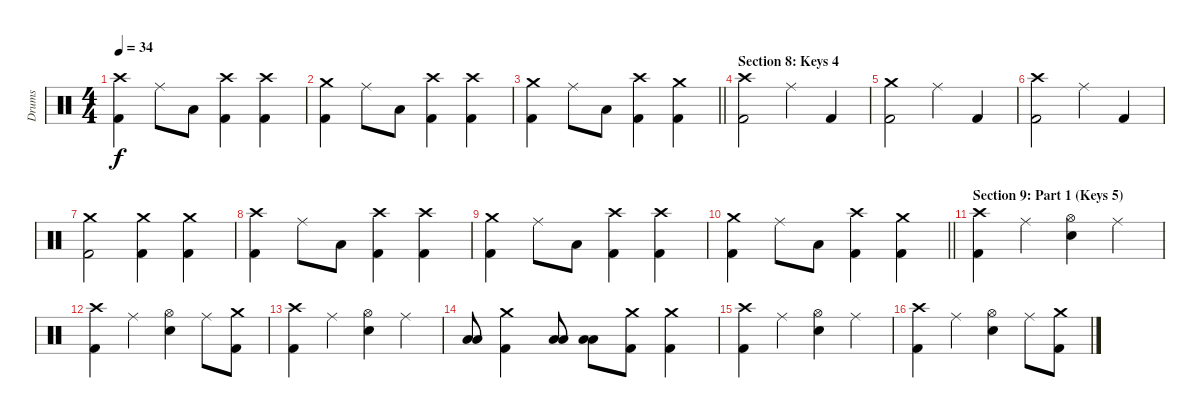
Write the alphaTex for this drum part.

\track ("Drums" "Drums") {instrument percussion}
\staff {score}
\articulation defaults
\ts (4 4)
\tempo 34
\clef neutral
\ks c
("Crash high (hit)" "Kick (hit) 2").4{dy f} "Ride (middle)".8 "Low Tom (hit)".8 ("Crash high (hit)" "Kick (hit) 2").4 ("Crash high (hit)" "Kick (hit) 2").4 |
("Crash medium (hit)" "Kick (hit) 2").4 "Ride (middle)".8 "Low Tom (hit)".8 ("Crash high (hit)" "Kick (hit) 2").4 ("Crash high (hit)" "Kick (hit) 2").4 |
\barLineRight lightlight
("Crash medium (hit)" "Kick (hit) 2").4 "Ride (middle)".8 "Low Tom (hit)".8 ("Crash high (hit)" "Kick (hit) 2").4 ("Crash medium (hit)" "Kick (hit) 2").4 |
\section ("" "Section 8: Keys 4")
("Crash high (hit)" "Kick (hit) 2").2 "Ride (middle)".4 "Kick (hit) 2".4 |
("Crash medium (hit)" "Kick (hit) 2").2 "Ride (middle)".4 "Kick (hit) 2".4 |
("Crash high (hit)" "Kick (hit) 2").2 "Ride (middle)".4 "Kick (hit) 2".4 |
("Crash medium (hit)" "Kick (hit) 2").2 ("Crash medium (hit)" "Kick (hit) 2").4 ("Crash medium (hit)" "Kick (hit) 2").4 |
("Crash high (hit)" "Kick (hit) 2").4 "Ride (middle)".8 "Low Tom (hit)".8 ("Crash high (hit)" "Kick (hit) 2").4 ("Crash high (hit)" "Kick (hit) 2").4 |
("Crash medium (hit)" "Kick (hit) 2").4 "Ride (middle)".8 "Low Tom (hit)".8 ("Crash high (hit)" "Kick (hit) 2").4 ("Crash high (hit)" "Kick (hit) 2").4 |
\barLineRight lightlight
("Crash medium (hit)" "Kick (hit) 2").4 "Ride (middle)".8 "Low Tom (hit)".8 ("Crash high (hit)" "Kick (hit) 2").4 ("Crash medium (hit)" "Kick (hit) 2").4 |
\section ("" "Section 9: Part 1 (Keys 5)")
("Crash high (hit)" "Kick (hit) 2").4 "Ride (middle)".4 ("Hi-Hat (open)" "Electric Snare (hit)").4 "Ride (middle)".4 |
("Crash high (hit)" "Kick (hit) 2").4 "Ride (middle)".4 ("Hi-Hat (open)" "Electric Snare (hit)").4 "Ride (middle)".8 ("Crash medium (hit)" "Kick (hit) 2").8 |
("Crash high (hit)" "Kick (hit) 2").4 "Ride (middle)".4 ("Hi-Hat (open)" "Electric Snare (hit)").4 "Ride (middle)".4 |
("Low Floor Tom (hit)" "Low Floor Tom (hit)").8 ("Crash medium (hit)" "Kick (hit) 2").4 ("Low Floor Tom (hit)" "Low Floor Tom (hit)").8 ("Low Floor Tom (hit)" "Low Floor Tom (hit)").8 ("Crash medium (hit)" "Kick (hit) 2").8 ("Crash medium (hit)" "Kick (hit) 2").4 |
("Crash high (hit)" "Kick (hit) 2").4 "Ride (middle)".4 ("Hi-Hat (open)" "Electric Snare (hit)").4 "Ride (middle)".4 |
("Crash high (hit)" "Kick (hit) 2").4 "Ride (middle)".4 ("Hi-Hat (open)" "Electric Snare (hit)").4 "Ride (middle)".8 ("Crash medium (hit)" "Kick (hit) 2").8
